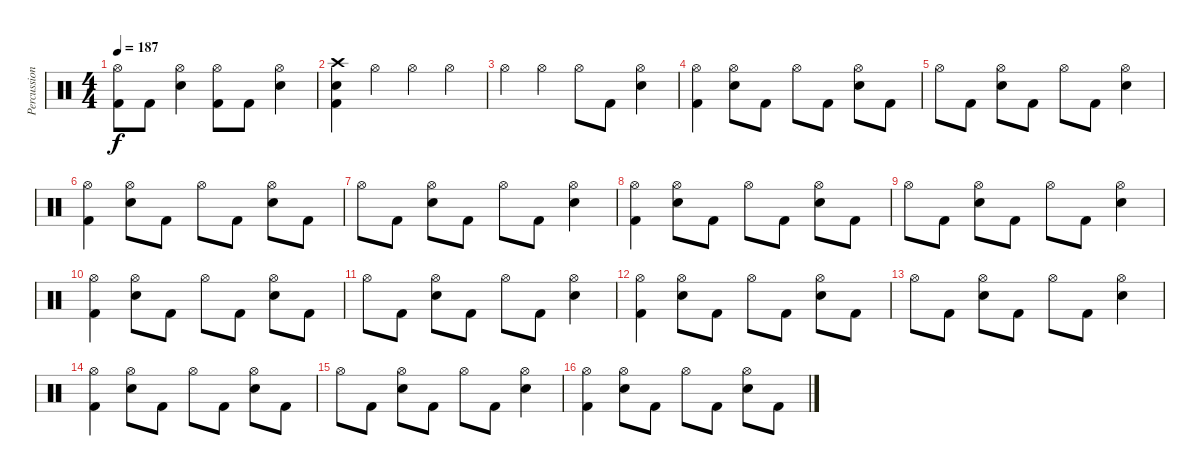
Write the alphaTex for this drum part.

\track ("Percussion" "Percussion") {instrument percussion}
\staff {score}
\articulation defaults
\ts (4 4)
\tempo 187
\clef neutral
\ks c
("Hi-Hat (open)" "Kick (hit) 2").8{dy f} "Kick (hit) 2".8 ("Hi-Hat (open)" "Snare (hit) 2").4 ("Hi-Hat (open)" "Kick (hit) 2").8 "Kick (hit) 2".8 ("Hi-Hat (open)" "Snare (hit) 2").4 |
("Crash high (hit)" "Snare (hit) 2" "Kick (hit) 2").4 "Hi-Hat (open)".4 "Hi-Hat (open)".4 "Hi-Hat (open)".4 |
"Hi-Hat (open)".4 "Hi-Hat (open)".4 "Hi-Hat (open)".8 "Kick (hit) 2".8 ("Hi-Hat (open)" "Snare (hit) 2").4 |
("Hi-Hat (open)" "Kick (hit) 2").4 ("Hi-Hat (open)" "Snare (hit) 2").8 "Kick (hit) 2".8 "Hi-Hat (open)".8 "Kick (hit) 2".8 ("Hi-Hat (open)" "Snare (hit) 2").8 "Kick (hit) 2".8 |
"Hi-Hat (open)".8 "Kick (hit) 2".8 ("Hi-Hat (open)" "Snare (hit) 2").8 "Kick (hit) 2".8 "Hi-Hat (open)".8 "Kick (hit) 2".8 ("Hi-Hat (open)" "Snare (hit) 2").4 |
("Hi-Hat (open)" "Kick (hit) 2").4 ("Hi-Hat (open)" "Snare (hit) 2").8 "Kick (hit) 2".8 "Hi-Hat (open)".8 "Kick (hit) 2".8 ("Hi-Hat (open)" "Snare (hit) 2").8 "Kick (hit) 2".8 |
"Hi-Hat (open)".8 "Kick (hit) 2".8 ("Hi-Hat (open)" "Snare (hit) 2").8 "Kick (hit) 2".8 "Hi-Hat (open)".8 "Kick (hit) 2".8 ("Hi-Hat (open)" "Snare (hit) 2").4 |
("Hi-Hat (open)" "Kick (hit) 2").4 ("Hi-Hat (open)" "Snare (hit) 2").8 "Kick (hit) 2".8 "Hi-Hat (open)".8 "Kick (hit) 2".8 ("Hi-Hat (open)" "Snare (hit) 2").8 "Kick (hit) 2".8 |
"Hi-Hat (open)".8 "Kick (hit) 2".8 ("Hi-Hat (open)" "Snare (hit) 2").8 "Kick (hit) 2".8 "Hi-Hat (open)".8 "Kick (hit) 2".8 ("Hi-Hat (open)" "Snare (hit) 2").4 |
("Hi-Hat (open)" "Kick (hit) 2").4 ("Hi-Hat (open)" "Snare (hit) 2").8 "Kick (hit) 2".8 "Hi-Hat (open)".8 "Kick (hit) 2".8 ("Hi-Hat (open)" "Snare (hit) 2").8 "Kick (hit) 2".8 |
"Hi-Hat (open)".8 "Kick (hit) 2".8 ("Hi-Hat (open)" "Snare (hit) 2").8 "Kick (hit) 2".8 "Hi-Hat (open)".8 "Kick (hit) 2".8 ("Hi-Hat (open)" "Snare (hit) 2").4 |
("Hi-Hat (open)" "Kick (hit) 2").4 ("Hi-Hat (open)" "Snare (hit) 2").8 "Kick (hit) 2".8 "Hi-Hat (open)".8 "Kick (hit) 2".8 ("Hi-Hat (open)" "Snare (hit) 2").8 "Kick (hit) 2".8 |
"Hi-Hat (open)".8 "Kick (hit) 2".8 ("Hi-Hat (open)" "Snare (hit) 2").8 "Kick (hit) 2".8 "Hi-Hat (open)".8 "Kick (hit) 2".8 ("Hi-Hat (open)" "Snare (hit) 2").4 |
("Hi-Hat (open)" "Kick (hit) 2").4 ("Hi-Hat (open)" "Snare (hit) 2").8 "Kick (hit) 2".8 "Hi-Hat (open)".8 "Kick (hit) 2".8 ("Hi-Hat (open)" "Snare (hit) 2").8 "Kick (hit) 2".8 |
"Hi-Hat (open)".8 "Kick (hit) 2".8 ("Hi-Hat (open)" "Snare (hit) 2").8 "Kick (hit) 2".8 "Hi-Hat (open)".8 "Kick (hit) 2".8 ("Hi-Hat (open)" "Snare (hit) 2").4 |
("Hi-Hat (open)" "Kick (hit) 2").4 ("Hi-Hat (open)" "Snare (hit) 2").8 "Kick (hit) 2".8 "Hi-Hat (open)".8 "Kick (hit) 2".8 ("Hi-Hat (open)" "Snare (hit) 2").8 "Kick (hit) 2".8
